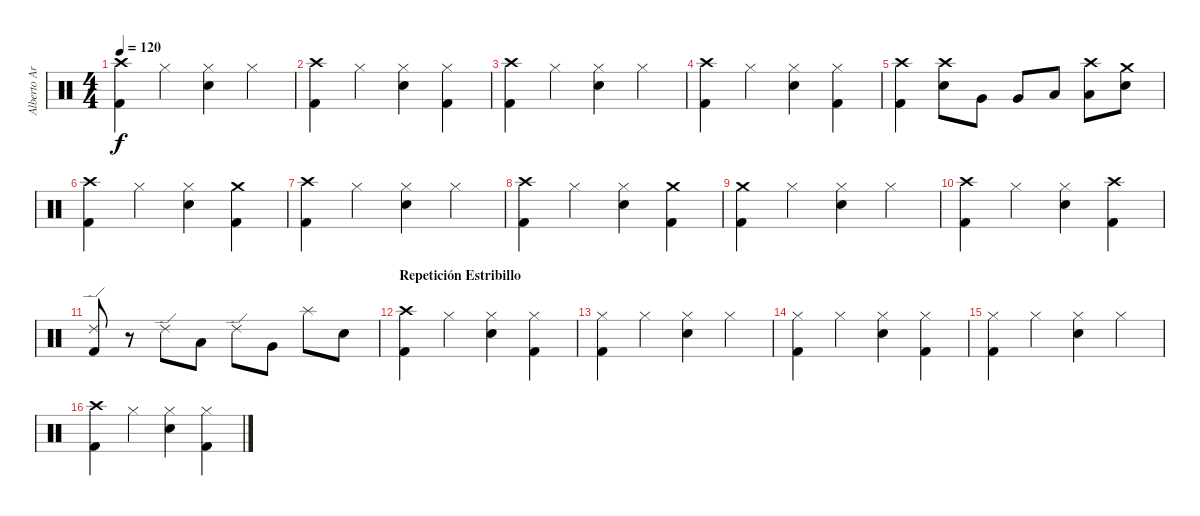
\track ("Alberto Ardines (Batería)" "Alberto Ar") {instrument percussion}
\staff {score}
\articulation defaults
\ts (4 4)
\tempo 120
\clef neutral
\ks c
("Crash high (hit)" "Kick (hit) 2").4{dy f} "Hi-Hat (closed)".4 ("Hi-Hat (closed)" "Electric Snare (hit)").4 "Hi-Hat (closed)".4 |
("Crash high (hit)" "Kick (hit) 2").4 "Hi-Hat (closed)".4 ("Hi-Hat (closed)" "Electric Snare (hit)").4 ("Hi-Hat (closed)" "Kick (hit) 2").4 |
("Crash high (hit)" "Kick (hit) 2").4 "Hi-Hat (closed)".4 ("Hi-Hat (closed)" "Electric Snare (hit)").4 "Hi-Hat (closed)".4 |
("Crash high (hit)" "Kick (hit) 2").4 "Hi-Hat (closed)".4 ("Hi-Hat (closed)" "Electric Snare (hit)").4 ("Hi-Hat (closed)" "Kick (hit) 2").4 |
("Crash high (hit)" "Kick (hit) 2").4 ("Crash high (hit)" "Electric Snare (hit)").8 "Very Low Tom (hit)".8 "Very Low Tom (hit)".8 "Low Floor Tom (hit)".8 ("Low Floor Tom (hit)" "Crash high (hit)").8 ("Crash medium (hit)" "Electric Snare (hit)").8 |
("Crash high (hit)" "Kick (hit) 2").4 "Hi-Hat (closed)".4 ("Hi-Hat (closed)" "Electric Snare (hit)").4 ("Crash medium (hit)" "Kick (hit) 2").4 |
("Crash high (hit)" "Kick (hit) 2").4 "Hi-Hat (closed)".4 ("Hi-Hat (closed)" "Electric Snare (hit)").4 "Hi-Hat (closed)".4 |
("Crash high (hit)" "Kick (hit) 2").4 "Hi-Hat (closed)".4 ("Hi-Hat (closed)" "Electric Snare (hit)").4 ("Crash medium (hit)" "Kick (hit) 2").4 |
("Crash medium (hit)" "Kick (hit) 2").4 "Hi-Hat (closed)".4 ("Hi-Hat (closed)" "Electric Snare (hit)").4 "Hi-Hat (closed)".4 |
("Crash high (hit)" "Kick (hit) 2").4 "Hi-Hat (closed)".4 ("Hi-Hat (closed)" "Electric Snare (hit)").4 ("Crash high (hit)" "Kick (hit) 2").4 |
("Ride (edge) 2" "Kick (hit) 2").8 r.8 "Ride (edge) 2".8 "Low Tom (hit)".8 "Ride (edge) 2".8 "Very Low Tom (hit)".8 "Splash (hit)".8 "Electric Snare (hit)".8 |
\section ("" "Repetición Estribillo")
("Crash high (hit)" "Kick (hit) 2").4 "Hi-Hat (closed)".4 ("Hi-Hat (closed)" "Electric Snare (hit)").4 ("Hi-Hat (closed)" "Kick (hit) 2").4 |
("Hi-Hat (closed)" "Kick (hit) 2").4 "Hi-Hat (closed)".4 ("Hi-Hat (closed)" "Electric Snare (hit)").4 "Hi-Hat (closed)".4 |
("Hi-Hat (closed)" "Kick (hit) 2").4 "Hi-Hat (closed)".4 ("Hi-Hat (closed)" "Electric Snare (hit)").4 ("Hi-Hat (closed)" "Kick (hit) 2").4 |
("Hi-Hat (closed)" "Kick (hit) 2").4 "Hi-Hat (closed)".4 ("Hi-Hat (closed)" "Electric Snare (hit)").4 "Hi-Hat (closed)".4 |
("Crash high (hit)" "Kick (hit) 2").4 "Hi-Hat (closed)".4 ("Hi-Hat (closed)" "Electric Snare (hit)").4 ("Hi-Hat (closed)" "Kick (hit) 2").4
